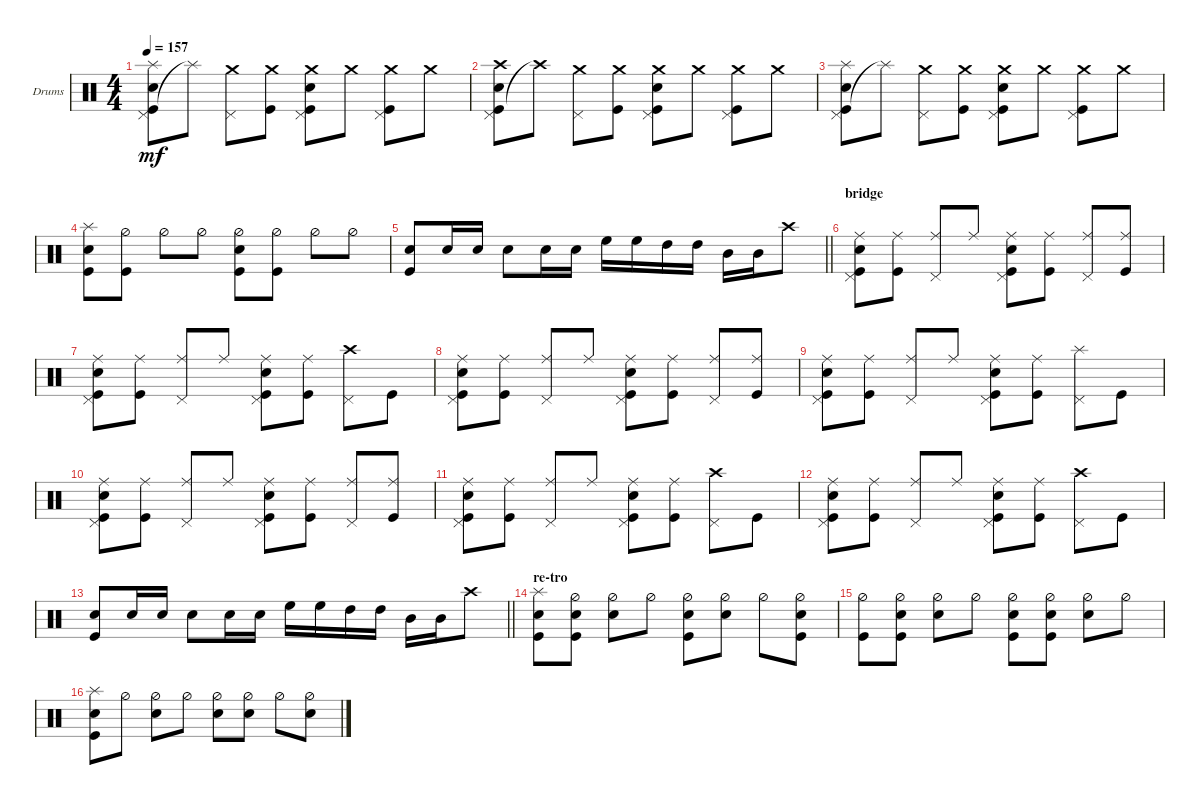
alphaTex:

\bracketExtendMode groupsimilarinstruments
\firstSystemTrackNameOrientation horizontal
\otherSystemsTrackNameOrientation horizontal
\track ("Drumkit" "Drums") {instrument percussion}
\staff {score}
\articulation defaults
\ts (4 4)
\tempo 157
\clef neutral
\scale
0.333333
\ks c
("Kick (hit)" "Snare (hit) 2" "Pedal Hi-Hat (hit)" "Splash (hit)").8{dy mf} "Splash (hit)"{t}.8 ("Pedal Hi-Hat (hit)" "Crash medium (hit)").8 ("Kick (hit)" "Crash medium (hit)").8 ("Kick (hit)" "Snare (hit) 2" "Pedal Hi-Hat (hit)" "Crash medium (hit)").8 "Crash medium (hit)".8 ("Pedal Hi-Hat (hit)" "Kick (hit)" "Crash medium (hit)").8 "Crash medium (hit)".8 |
\scale
0.333333 ("Kick (hit)" "Snare (hit) 2" "Pedal Hi-Hat (hit)" "Crash high (hit)").8 "Crash high (hit)"{t}.8 ("Pedal Hi-Hat (hit)" "Crash medium (hit)").8 ("Kick (hit)" "Crash medium (hit)").8 ("Kick (hit)" "Snare (hit) 2" "Pedal Hi-Hat (hit)" "Crash medium (hit)").8 "Crash medium (hit)".8 ("Pedal Hi-Hat (hit)" "Kick (hit)" "Crash medium (hit)").8 "Crash medium (hit)".8 |
\scale
0.333333 ("Kick (hit)" "Snare (hit) 2" "Pedal Hi-Hat (hit)" "Splash (hit)").8 "Splash (hit)"{t}.8 ("Pedal Hi-Hat (hit)" "Crash medium (hit)").8 ("Kick (hit)" "Crash medium (hit)").8 ("Kick (hit)" "Snare (hit) 2" "Pedal Hi-Hat (hit)" "Crash medium (hit)").8 "Crash medium (hit)".8 ("Pedal Hi-Hat (hit)" "Kick (hit)" "Crash medium (hit)").8 "Crash medium (hit)".8 |
\scale
0.333333 ("Kick (hit)" "Snare (hit) 2" "Splash (hit)").8 ("Kick (hit)" "Hi-Hat (half)").8 "Hi-Hat (half)".8 "Hi-Hat (half)".8 ("Kick (hit)" "Snare (hit) 2" "Hi-Hat (half)").8 ("Kick (hit)" "Hi-Hat (half)").8 "Hi-Hat (half)".8 "Hi-Hat (half)".8 |
\scale
0.333333
\barLineRight lightlight
("Snare (hit) 2" "Kick (hit)").8 "Snare (hit) 2".16 "Snare (hit) 2".16 "Snare (hit) 2".8 "Snare (hit) 2".16 "Snare (hit) 2".16 "High Floor Tom (hit)".16 "High Floor Tom (hit)".16 "High Tom (hit)".16 "High Tom (hit)".16 "Mid Tom (hit)".16 "Mid Tom (hit)".16 "Crash high (hit)".8 |
\section ("" "bridge")
\scale
0.333333 ("Kick (hit)" "Ride (middle)" "Snare (hit) 2" "Pedal Hi-Hat (hit)").8 ("Kick (hit)" "Ride (middle)").8 ("Ride (middle)" "Pedal Hi-Hat (hit)").8 "Ride (middle)".8 ("Kick (hit)" "Ride (middle)" "Snare (hit) 2" "Pedal Hi-Hat (hit)").8 ("Kick (hit)" "Ride (middle)").8 ("Ride (middle)" "Pedal Hi-Hat (hit)").8 ("Kick (hit)" "Ride (middle)").8 |
\scale
0.333333 ("Kick (hit)" "Ride (middle)" "Snare (hit) 2" "Pedal Hi-Hat (hit)").8 ("Kick (hit)" "Ride (middle)").8 ("Ride (middle)" "Pedal Hi-Hat (hit)").8 "Ride (middle)".8 ("Kick (hit)" "Snare (hit) 2" "Ride (middle)" "Pedal Hi-Hat (hit)").8 ("Kick (hit)" "Ride (middle)").8 ("Pedal Hi-Hat (hit)" "Crash high (hit)").8 "Kick (hit)".8 |
\scale
0.333333 ("Kick (hit)" "Ride (middle)" "Snare (hit) 2" "Pedal Hi-Hat (hit)").8 ("Kick (hit)" "Ride (middle)").8 ("Ride (middle)" "Pedal Hi-Hat (hit)").8 "Ride (middle)".8 ("Kick (hit)" "Ride (middle)" "Snare (hit) 2" "Pedal Hi-Hat (hit)").8 ("Kick (hit)" "Ride (middle)").8 ("Ride (middle)" "Pedal Hi-Hat (hit)").8 ("Kick (hit)" "Ride (middle)").8 |
\scale
0.333333 ("Kick (hit)" "Ride (middle)" "Snare (hit) 2" "Pedal Hi-Hat (hit)").8 ("Kick (hit)" "Ride (middle)").8 ("Ride (middle)" "Pedal Hi-Hat (hit)").8 "Ride (middle)".8 ("Kick (hit)" "Snare (hit) 2" "Ride (middle)" "Pedal Hi-Hat (hit)").8 ("Kick (hit)" "Ride (middle)").8 ("Splash (hit)" "Pedal Hi-Hat (hit)").8 "Kick (hit)".8 |
\scale
0.333333 ("Kick (hit)" "Ride (middle)" "Snare (hit) 2" "Pedal Hi-Hat (hit)").8 ("Kick (hit)" "Ride (middle)").8 ("Ride (middle)" "Pedal Hi-Hat (hit)").8 "Ride (middle)".8 ("Kick (hit)" "Ride (middle)" "Snare (hit) 2" "Pedal Hi-Hat (hit)").8 ("Kick (hit)" "Ride (middle)").8 ("Ride (middle)" "Pedal Hi-Hat (hit)").8 ("Kick (hit)" "Ride (middle)").8 |
\scale
0.333333 ("Kick (hit)" "Ride (middle)" "Snare (hit) 2" "Pedal Hi-Hat (hit)").8 ("Kick (hit)" "Ride (middle)").8 ("Ride (middle)" "Pedal Hi-Hat (hit)").8 "Ride (middle)".8 ("Kick (hit)" "Snare (hit) 2" "Ride (middle)" "Pedal Hi-Hat (hit)").8 ("Kick (hit)" "Ride (middle)").8 ("Pedal Hi-Hat (hit)" "Crash high (hit)").8 "Kick (hit)".8 |
\scale
0.333333 ("Kick (hit)" "Ride (middle)" "Snare (hit) 2" "Pedal Hi-Hat (hit)").8 ("Kick (hit)" "Ride (middle)").8 ("Ride (middle)" "Pedal Hi-Hat (hit)").8 "Ride (middle)".8 ("Kick (hit)" "Ride (middle)" "Snare (hit) 2" "Pedal Hi-Hat (hit)").8 ("Kick (hit)" "Ride (middle)").8 ("Pedal Hi-Hat (hit)" "Crash high (hit)").8 "Kick (hit)".8 |
\scale
0.333333
\barLineRight lightlight
("Snare (hit) 2" "Kick (hit)").8 "Snare (hit) 2".16 "Snare (hit) 2".16 "Snare (hit) 2".8 "Snare (hit) 2".16 "Snare (hit) 2".16 "High Floor Tom (hit)".16 "High Floor Tom (hit)".16 "High Tom (hit)".16 "High Tom (hit)".16 "Mid Tom (hit)".16 "Mid Tom (hit)".16 "Crash high (hit)".8 |
\section ("" "re-tro")
\scale
0.333333 ("Kick (hit)" "Splash (hit)" "Snare (hit) 2").8 ("Kick (hit)" "Snare (hit) 2" "Hi-Hat (half)").8 ("Hi-Hat (half)" "Snare (hit) 2").8 "Hi-Hat (half)".8 ("Kick (hit)" "Snare (hit) 2" "Hi-Hat (half)").8 ("Hi-Hat (half)" "Snare (hit) 2").8 "Hi-Hat (half)".8 ("Snare (hit) 2" "Hi-Hat (half)" "Kick (hit)").8 |
\scale
0.333333 ("Kick (hit)" "Hi-Hat (half)").8 ("Snare (hit) 2" "Kick (hit)" "Hi-Hat (half)").8 ("Hi-Hat (half)" "Snare (hit) 2").8 "Hi-Hat (half)".8 ("Kick (hit)" "Snare (hit) 2" "Hi-Hat (half)").8 ("Snare (hit) 2" "Kick (hit)" "Hi-Hat (half)").8 ("Hi-Hat (half)" "Snare (hit) 2").8 "Hi-Hat (half)".8 |
\scale
0.333333 ("Snare (hit) 2" "Kick (hit)" "Splash (hit)").8 "Hi-Hat (half)".8 ("Snare (hit) 2" "Hi-Hat (half)").8 "Hi-Hat (half)".8 ("Hi-Hat (half)" "Snare (hit) 2").8 ("Hi-Hat (half)" "Snare (hit) 2").8 "Hi-Hat (half)".8 ("Hi-Hat (half)" "Snare (hit) 2").8
